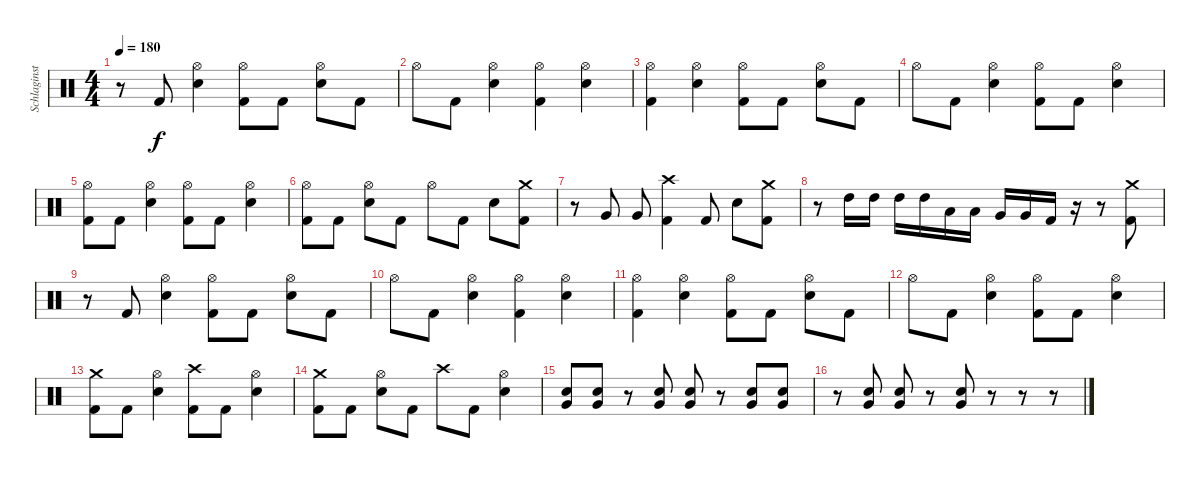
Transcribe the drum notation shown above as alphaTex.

\track ("Schlaginstrumente - Auswahl" "Schlaginst") {instrument percussion}
\staff {score}
\articulation defaults
\ts (4 4)
\tempo 180
\clef neutral
\ks c
r.8{dy f} "Kick (hit) 2".8 ("Hi-Hat (open)" "Electric Snare (hit)").4 ("Hi-Hat (open)" "Kick (hit) 2").8 "Kick (hit) 2".8 ("Hi-Hat (open)" "Electric Snare (hit)").8 "Kick (hit) 2".8 |
"Hi-Hat (open)".8 "Kick (hit) 2".8 ("Hi-Hat (open)" "Electric Snare (hit)").4 ("Hi-Hat (open)" "Kick (hit) 2").4 ("Hi-Hat (open)" "Electric Snare (hit)").4 |
("Hi-Hat (open)" "Kick (hit) 2").4 ("Hi-Hat (open)" "Electric Snare (hit)").4 ("Hi-Hat (open)" "Kick (hit) 2").8 "Kick (hit) 2".8 ("Hi-Hat (open)" "Electric Snare (hit)").8 "Kick (hit) 2".8 |
"Hi-Hat (open)".8 "Kick (hit) 2".8 ("Hi-Hat (open)" "Electric Snare (hit)").4 ("Hi-Hat (open)" "Kick (hit) 2").8 "Kick (hit) 2".8 ("Hi-Hat (open)" "Electric Snare (hit)").4 |
("Hi-Hat (open)" "Kick (hit) 2").8 "Kick (hit) 2".8 ("Hi-Hat (open)" "Electric Snare (hit)").4 ("Hi-Hat (open)" "Kick (hit) 2").8 "Kick (hit) 2".8 ("Hi-Hat (open)" "Electric Snare (hit)").4 |
("Hi-Hat (open)" "Kick (hit) 2").8 "Kick (hit) 2".8 ("Hi-Hat (open)" "Electric Snare (hit)").8 "Kick (hit) 2".8 "Hi-Hat (open)".8 "Kick (hit) 2".8 "Electric Snare (hit)".8 ("Crash medium (hit)" "Kick (hit) 2").8 |
r.8 "Very Low Tom (hit)".8 "Very Low Tom (hit)".8 ("Crash high (hit)" "Kick (hit) 2").4 "Kick (hit) 2".8 "Electric Snare (hit)".8 ("Crash medium (hit)" "Kick (hit) 2").8 |
r.8 "High Tom (hit)".16 "High Tom (hit)".16 "High Tom (hit)".16 "High Tom (hit)".16 "Low Tom (hit)".16 "Low Tom (hit)".16 "Very Low Tom (hit)".16 "Very Low Tom (hit)".16 "Kick (hit) 2".16 r.16 r.8 ("Crash medium (hit)" "Kick (hit) 2").8 |
r.8 "Kick (hit) 2".8 ("Hi-Hat (open)" "Electric Snare (hit)").4 ("Hi-Hat (open)" "Kick (hit) 2").8 "Kick (hit) 2".8 ("Hi-Hat (open)" "Electric Snare (hit)").8 "Kick (hit) 2".8 |
"Hi-Hat (open)".8 "Kick (hit) 2".8 ("Hi-Hat (open)" "Electric Snare (hit)").4 ("Hi-Hat (open)" "Kick (hit) 2").4 ("Hi-Hat (open)" "Electric Snare (hit)").4 |
("Hi-Hat (open)" "Kick (hit) 2").4 ("Hi-Hat (open)" "Electric Snare (hit)").4 ("Hi-Hat (open)" "Kick (hit) 2").8 "Kick (hit) 2".8 ("Hi-Hat (open)" "Electric Snare (hit)").8 "Kick (hit) 2".8 |
"Hi-Hat (open)".8 "Kick (hit) 2".8 ("Hi-Hat (open)" "Electric Snare (hit)").4 ("Hi-Hat (open)" "Kick (hit) 2").8 "Kick (hit) 2".8 ("Hi-Hat (open)" "Electric Snare (hit)").4 |
("Crash medium (hit)" "Kick (hit) 2").8 "Kick (hit) 2".8 ("Hi-Hat (open)" "Electric Snare (hit)").4 ("Crash high (hit)" "Kick (hit) 2").8 "Kick (hit) 2".8 ("Hi-Hat (open)" "Electric Snare (hit)").4 |
("Crash medium (hit)" "Kick (hit) 2").8 "Kick (hit) 2".8 ("Hi-Hat (open)" "Electric Snare (hit)").8 "Kick (hit) 2".8 "Crash high (hit)".8 "Kick (hit) 2".8 ("Hi-Hat (open)" "Electric Snare (hit)").4 |
("Electric Snare (hit)" "Very Low Tom (hit)").8 ("Electric Snare (hit)" "Very Low Tom (hit)").8 r.8 ("Electric Snare (hit)" "Very Low Tom (hit)").8 ("Electric Snare (hit)" "Very Low Tom (hit)").8 r.8 ("Electric Snare (hit)" "Very Low Tom (hit)").8 ("Electric Snare (hit)" "Very Low Tom (hit)").8 |
r.8 ("Electric Snare (hit)" "Very Low Tom (hit)").8 ("Electric Snare (hit)" "Very Low Tom (hit)").8 r.8 ("Electric Snare (hit)" "Very Low Tom (hit)").8 r.8 r.8 r.8
